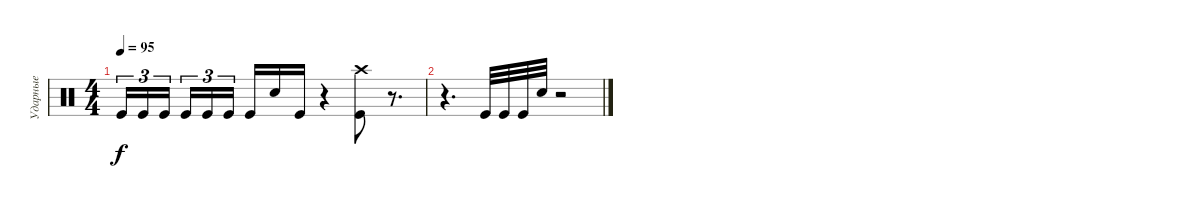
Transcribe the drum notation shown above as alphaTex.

\track ("Ударные" "Ударные") {instrument percussion}
\staff {score}
\articulation defaults
\ts (4 4)
\tempo 95
\clef neutral
\ks c "Kick (hit)".16{tu (3 2) dy f} "Kick (hit)".16{tu (3 2)} "Kick (hit)".16{tu (3 2) beam splitsecondary} "Kick (hit)".16{tu (3 2)} "Kick (hit)".16{tu (3 2)} "Kick (hit)".16{tu (3 2)} "Kick (hit)".16 "Snare (hit) 2".16 "Kick (hit)".16
r.4 ("Crash high (hit)" "Kick (hit)").8 r.8{d} |
r.4{d} "Kick (hit)".32 "Kick (hit)".32 "Kick (hit)".32 "Snare (hit) 2".32 r.2
